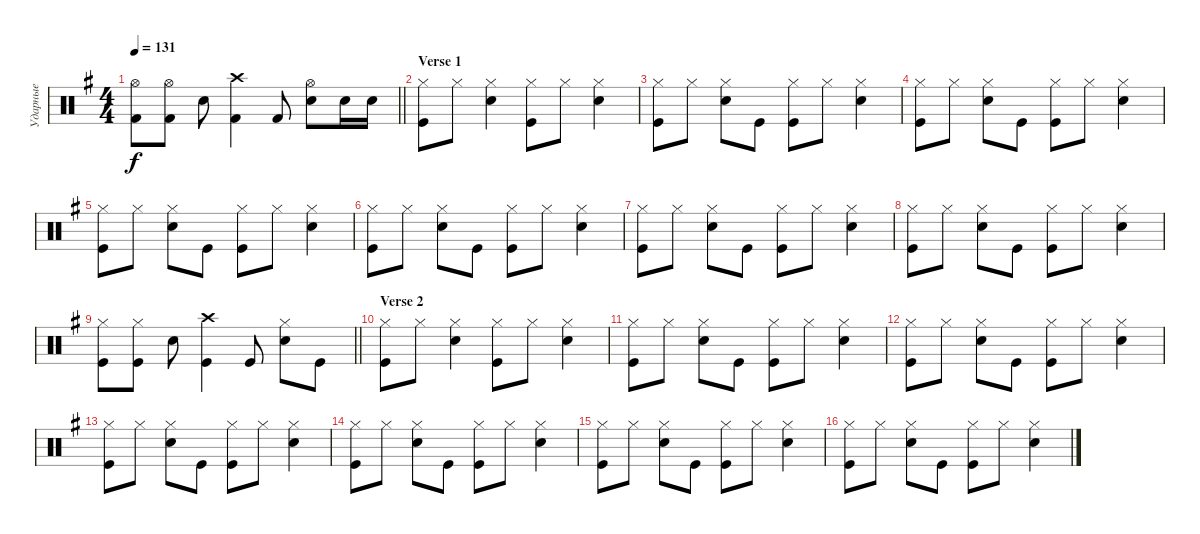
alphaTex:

\track ("Ударные" "Ударные") {instrument percussion}
\staff {score}
\articulation defaults
\ts (4 4)
\tempo 131
\clef neutral
\barLineRight lightlight
\ks eminor
("Hi-Hat (open)" "Kick (hit) 2").8{dy f} ("Hi-Hat (open)" "Kick (hit) 2").8 "Snare (hit) 2".8 ("Crash high (hit)" "Kick (hit) 2").4 "Kick (hit) 2".8 ("Hi-Hat (open)" "Snare (hit) 2").8 "Snare (hit) 2".16 "Snare (hit) 2".16 |
\section ("" "Verse 1")
("Hi-Hat (closed)" "Kick (hit)").8 "Hi-Hat (closed)".8 ("Hi-Hat (closed)" "Snare (hit) 2").4 ("Hi-Hat (closed)" "Kick (hit)").8 "Hi-Hat (closed)".8 ("Hi-Hat (closed)" "Snare (hit) 2").4 |
("Hi-Hat (closed)" "Kick (hit)").8 "Hi-Hat (closed)".8 ("Hi-Hat (closed)" "Snare (hit) 2").8 "Kick (hit)".8 ("Hi-Hat (closed)" "Kick (hit)").8 "Hi-Hat (closed)".8 ("Snare (hit) 2" "Hi-Hat (closed)").4 |
("Hi-Hat (closed)" "Kick (hit)").8 "Hi-Hat (closed)".8 ("Hi-Hat (closed)" "Snare (hit) 2").8 "Kick (hit)".8 ("Hi-Hat (closed)" "Kick (hit)").8 "Hi-Hat (closed)".8 ("Hi-Hat (closed)" "Snare (hit) 2").4 |
("Hi-Hat (closed)" "Kick (hit)").8 "Hi-Hat (closed)".8 ("Hi-Hat (closed)" "Snare (hit) 2").8 "Kick (hit)".8 ("Hi-Hat (closed)" "Kick (hit)").8 "Hi-Hat (closed)".8 ("Hi-Hat (closed)" "Snare (hit) 2").4 |
("Hi-Hat (closed)" "Kick (hit)").8 "Hi-Hat (closed)".8 ("Hi-Hat (closed)" "Snare (hit) 2").8 "Kick (hit)".8 ("Hi-Hat (closed)" "Kick (hit)").8 "Hi-Hat (closed)".8 ("Hi-Hat (closed)" "Snare (hit) 2").4 |
("Hi-Hat (closed)" "Kick (hit)").8 "Hi-Hat (closed)".8 ("Hi-Hat (closed)" "Snare (hit) 2").8 "Kick (hit)".8 ("Hi-Hat (closed)" "Kick (hit)").8 "Hi-Hat (closed)".8 ("Hi-Hat (closed)" "Snare (hit) 2").4 |
("Hi-Hat (closed)" "Kick (hit)").8 "Hi-Hat (closed)".8 ("Hi-Hat (closed)" "Snare (hit) 2").8 "Kick (hit)".8 ("Hi-Hat (closed)" "Kick (hit)").8 "Hi-Hat (closed)".8 ("Hi-Hat (closed)" "Snare (hit) 2").4 |
\barLineRight lightlight
("Kick (hit)" "Hi-Hat (closed)").8 ("Kick (hit)" "Hi-Hat (closed)").8 "Snare (hit) 2".8 ("Crash high (hit)" "Kick (hit)").4 "Kick (hit)".8 ("Snare (hit) 2" "Hi-Hat (closed)").8 "Kick (hit)".8 |
\section ("" "Verse 2")
("Hi-Hat (closed)" "Kick (hit)").8 "Hi-Hat (closed)".8 ("Hi-Hat (closed)" "Snare (hit) 2").4 ("Hi-Hat (closed)" "Kick (hit)").8 "Hi-Hat (closed)".8 ("Hi-Hat (closed)" "Snare (hit) 2").4 |
("Hi-Hat (closed)" "Kick (hit)").8 "Hi-Hat (closed)".8 ("Hi-Hat (closed)" "Snare (hit) 2").8 "Kick (hit)".8 ("Hi-Hat (closed)" "Kick (hit)").8 "Hi-Hat (closed)".8 ("Snare (hit) 2" "Hi-Hat (closed)").4 |
("Hi-Hat (closed)" "Kick (hit)").8 "Hi-Hat (closed)".8 ("Hi-Hat (closed)" "Snare (hit) 2").8 "Kick (hit)".8 ("Hi-Hat (closed)" "Kick (hit)").8 "Hi-Hat (closed)".8 ("Hi-Hat (closed)" "Snare (hit) 2").4 |
("Hi-Hat (closed)" "Kick (hit)").8 "Hi-Hat (closed)".8 ("Hi-Hat (closed)" "Snare (hit) 2").8 "Kick (hit)".8 ("Hi-Hat (closed)" "Kick (hit)").8 "Hi-Hat (closed)".8 ("Hi-Hat (closed)" "Snare (hit) 2").4 |
("Hi-Hat (closed)" "Kick (hit)").8 "Hi-Hat (closed)".8 ("Hi-Hat (closed)" "Snare (hit) 2").8 "Kick (hit)".8 ("Hi-Hat (closed)" "Kick (hit)").8 "Hi-Hat (closed)".8 ("Hi-Hat (closed)" "Snare (hit) 2").4 |
("Hi-Hat (closed)" "Kick (hit)").8 "Hi-Hat (closed)".8 ("Hi-Hat (closed)" "Snare (hit) 2").8 "Kick (hit)".8 ("Hi-Hat (closed)" "Kick (hit)").8 "Hi-Hat (closed)".8 ("Hi-Hat (closed)" "Snare (hit) 2").4 |
("Hi-Hat (closed)" "Kick (hit)").8 "Hi-Hat (closed)".8 ("Hi-Hat (closed)" "Snare (hit) 2").8 "Kick (hit)".8 ("Hi-Hat (closed)" "Kick (hit)").8 "Hi-Hat (closed)".8 ("Hi-Hat (closed)" "Snare (hit) 2").4
